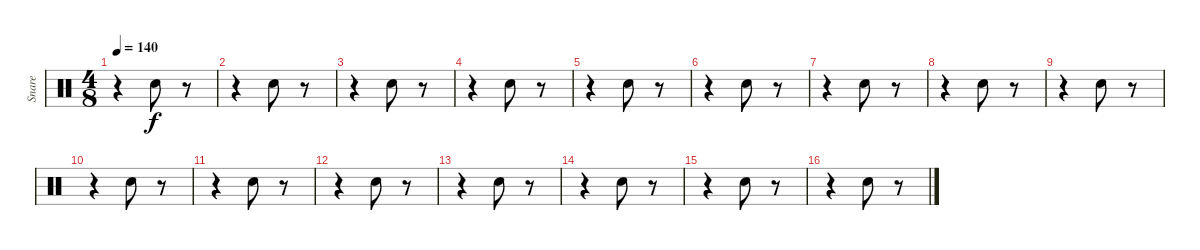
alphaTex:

\track ("Snare" "Snare") {instrument percussion}
\staff {score}
\articulation defaults
\ts (4 8)
\tempo 140
\clef neutral
\ks c
r.4{dy f} "Snare (hit) 2".8 r.8 |
r.4 "Snare (hit) 2".8 r.8 |
r.4 "Snare (hit) 2".8 r.8 |
r.4 "Snare (hit) 2".8 r.8 |
r.4 "Snare (hit) 2".8 r.8 |
r.4 "Snare (hit) 2".8 r.8 |
r.4 "Snare (hit) 2".8 r.8 |
r.4 "Snare (hit) 2".8 r.8 |
r.4 "Snare (hit) 2".8 r.8 |
r.4 "Snare (hit) 2".8 r.8 |
r.4 "Snare (hit) 2".8 r.8 |
r.4 "Snare (hit) 2".8 r.8 |
r.4 "Snare (hit) 2".8 r.8 |
r.4 "Snare (hit) 2".8 r.8 |
r.4 "Snare (hit) 2".8 r.8 |
r.4 "Snare (hit) 2".8 r.8
